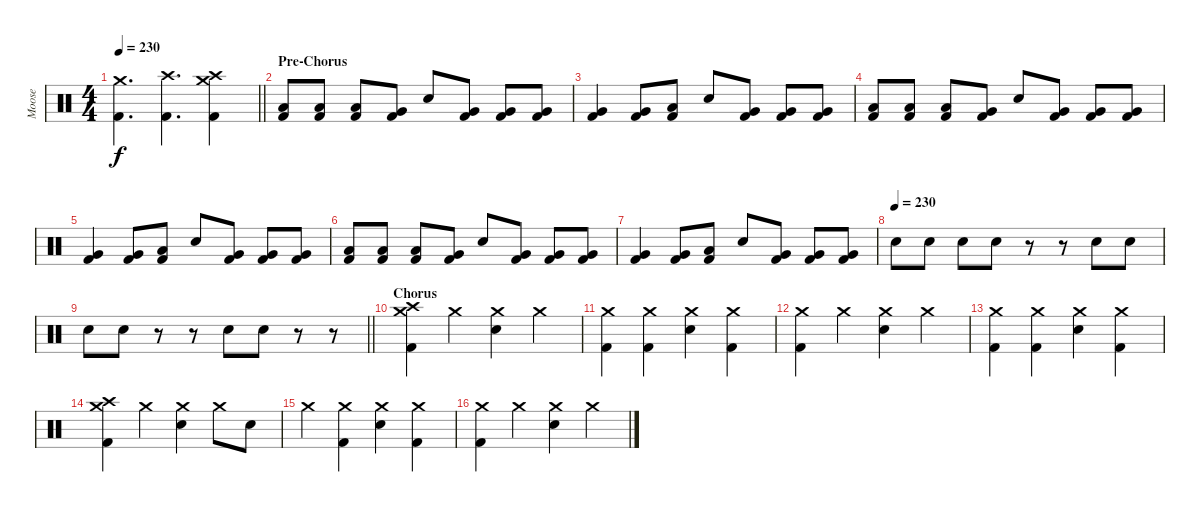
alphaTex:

\track ("Moose" "Moose") {instrument percussion}
\staff {score}
\articulation defaults
\ts (4 4)
\tempo 230
\clef neutral
\barLineRight lightlight
\ks c
("Crash medium (hit)" "Kick (hit) 2").4{d dy f} ("Crash high (hit)" "Kick (hit) 2").4{d} ("Crash high (hit)" "Crash medium (hit)" "Kick (hit) 2").4 |
\section ("" "Pre-Chorus")
("Low Tom (hit)" "Kick (hit) 2").8 ("Low Tom (hit)" "Kick (hit) 2").8 ("Low Tom (hit)" "Kick (hit) 2").8 ("Very Low Tom (hit)" "Kick (hit) 2").8 "Snare (hit) 2".8 ("Very Low Tom (hit)" "Kick (hit) 2").8 ("Very Low Tom (hit)" "Kick (hit) 2").8 ("Very Low Tom (hit)" "Kick (hit) 2").8 |
("Very Low Tom (hit)" "Kick (hit) 2").4 ("Very Low Tom (hit)" "Kick (hit) 2").8 ("Low Tom (hit)" "Kick (hit) 2").8 "Snare (hit) 2".8 ("Very Low Tom (hit)" "Kick (hit) 2").8 ("Very Low Tom (hit)" "Kick (hit) 2").8 ("Very Low Tom (hit)" "Kick (hit) 2").8 |
("Low Tom (hit)" "Kick (hit) 2").8 ("Low Tom (hit)" "Kick (hit) 2").8 ("Low Tom (hit)" "Kick (hit) 2").8 ("Very Low Tom (hit)" "Kick (hit) 2").8 "Snare (hit) 2".8 ("Very Low Tom (hit)" "Kick (hit) 2").8 ("Very Low Tom (hit)" "Kick (hit) 2").8 ("Very Low Tom (hit)" "Kick (hit) 2").8 |
("Very Low Tom (hit)" "Kick (hit) 2").4 ("Very Low Tom (hit)" "Kick (hit) 2").8 ("Low Tom (hit)" "Kick (hit) 2").8 "Snare (hit) 2".8 ("Very Low Tom (hit)" "Kick (hit) 2").8 ("Very Low Tom (hit)" "Kick (hit) 2").8 ("Very Low Tom (hit)" "Kick (hit) 2").8 |
("Low Tom (hit)" "Kick (hit) 2").8 ("Low Tom (hit)" "Kick (hit) 2").8 ("Low Tom (hit)" "Kick (hit) 2").8 ("Very Low Tom (hit)" "Kick (hit) 2").8 "Snare (hit) 2".8 ("Very Low Tom (hit)" "Kick (hit) 2").8 ("Very Low Tom (hit)" "Kick (hit) 2").8 ("Very Low Tom (hit)" "Kick (hit) 2").8 |
("Very Low Tom (hit)" "Kick (hit) 2").4 ("Very Low Tom (hit)" "Kick (hit) 2").8 ("Low Tom (hit)" "Kick (hit) 2").8 "Snare (hit) 2".8 ("Very Low Tom (hit)" "Kick (hit) 2").8 ("Very Low Tom (hit)" "Kick (hit) 2").8 ("Very Low Tom (hit)" "Kick (hit) 2").8 |
\tempo (230)
"Snare (hit) 2".8 "Snare (hit) 2".8 "Snare (hit) 2".8 "Snare (hit) 2".8 r.8 r.8 "Snare (hit) 2".8 "Snare (hit) 2".8 |
\barLineRight lightlight "Snare (hit) 2".8 "Snare (hit) 2".8
r.8 r.8 "Snare (hit) 2".8 "Snare (hit) 2".8 r.8 r.8 |
\section ("" "Chorus")
("Crash high (hit)" "Crash medium (hit)" "Kick (hit) 2").4 "Crash medium (hit)".4 ("Crash medium (hit)" "Snare (hit) 2").4 "Crash medium (hit)".4 |
("Crash medium (hit)" "Kick (hit) 2").4 ("Crash medium (hit)" "Kick (hit) 2").4 ("Crash medium (hit)" "Snare (hit) 2").4 ("Crash medium (hit)" "Kick (hit) 2").4 |
("Crash medium (hit)" "Kick (hit) 2").4 "Crash medium (hit)".4 ("Crash medium (hit)" "Snare (hit) 2").4 "Crash medium (hit)".4 |
("Crash medium (hit)" "Kick (hit) 2").4 ("Crash medium (hit)" "Kick (hit) 2").4 ("Crash medium (hit)" "Snare (hit) 2").4 ("Crash medium (hit)" "Kick (hit) 2").4 |
("Crash high (hit)" "Crash medium (hit)" "Kick (hit) 2").4 "Crash medium (hit)".4 ("Crash medium (hit)" "Snare (hit) 2").4 "Crash medium (hit)".8 "Snare (hit) 2".8 |
"Crash medium (hit)".4 ("Crash medium (hit)" "Kick (hit) 2").4 ("Crash medium (hit)" "Snare (hit) 2").4 ("Crash medium (hit)" "Kick (hit) 2").4 |
("Crash medium (hit)" "Kick (hit) 2").4 "Crash medium (hit)".4 ("Crash medium (hit)" "Snare (hit) 2").4 "Crash medium (hit)".4
